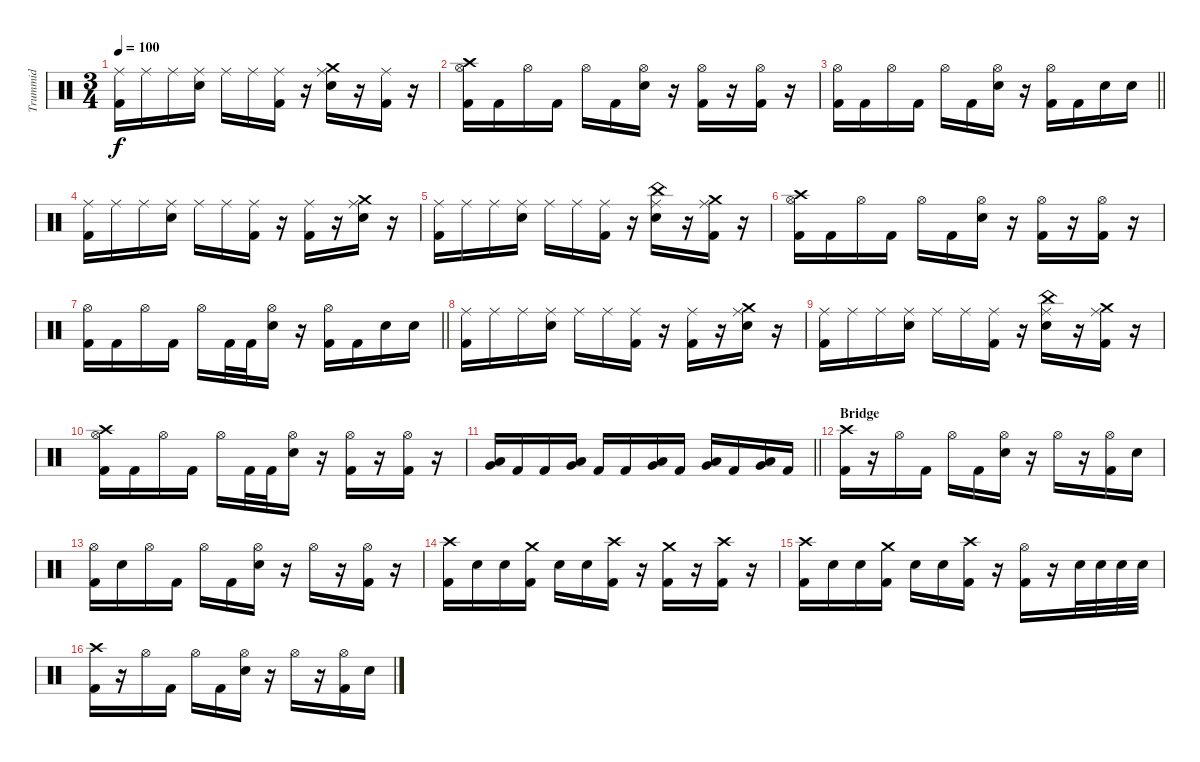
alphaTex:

\track ("Trummid" "Trummid") {instrument percussion}
\staff {score}
\articulation defaults
\ts (3 4)
\tempo 100
\clef neutral
\ks c
("Ride (middle)" "Kick (hit) 2").16{dy f} "Ride (middle)".16 "Ride (middle)".16 ("Ride (middle)" "Snare (hit) 2").16 "Ride (middle)".16 "Ride (middle)".16 ("Ride (middle)" "Kick (hit) 2").16 r.16 ("Crash medium (hit)" "Ride (middle)" "Snare (hit) 2").16 r.16 ("Ride (middle)" "Kick (hit) 2").16 r.16 |
("Crash high (hit)" "Hi-Hat (open)" "Kick (hit) 2").16 "Kick (hit) 2".16 "Hi-Hat (open)".16 "Kick (hit) 2".16 "Hi-Hat (open)".16 "Kick (hit) 2".16 ("Hi-Hat (open)" "Snare (hit) 2").16 r.16 ("Hi-Hat (open)" "Kick (hit) 2").16 r.16 ("Hi-Hat (open)" "Kick (hit) 2").16 r.16 |
\barLineRight lightlight
("Hi-Hat (open)" "Kick (hit) 2").16 "Kick (hit) 2".16 "Hi-Hat (open)".16 "Kick (hit) 2".16 "Hi-Hat (open)".16 "Kick (hit) 2".16 ("Hi-Hat (open)" "Snare (hit) 2").16 r.16 ("Hi-Hat (open)" "Kick (hit) 2").16 "Kick (hit) 2".16 "Snare (hit) 2".16 "Snare (hit) 2".16 |
("Ride (middle)" "Kick (hit) 2").16 "Ride (middle)".16 "Ride (middle)".16 ("Ride (middle)" "Snare (hit) 2").16 "Ride (middle)".16 "Ride (middle)".16 ("Ride (middle)" "Kick (hit) 2").16 r.16 ("Ride (middle)" "Kick (hit) 2").16 r.16 ("Crash medium (hit)" "Ride (middle)" "Snare (hit) 2").16 r.16 |
("Ride (middle)" "Kick (hit) 2").16 "Ride (middle)".16 "Ride (middle)".16 ("Ride (middle)" "Snare (hit) 2").16 "Ride (middle)".16 "Ride (middle)".16 ("Ride (middle)" "Kick (hit) 2").16 r.16 ("China (hit)" "Ride (middle)" "Snare (hit) 2").16 r.16 ("Crash medium (hit)" "Ride (middle)" "Kick (hit) 2").16 r.16 |
("Crash high (hit)" "Hi-Hat (open)" "Kick (hit) 2").16 "Kick (hit) 2".16 "Hi-Hat (open)".16 "Kick (hit) 2".16 "Hi-Hat (open)".16 "Kick (hit) 2".16 ("Hi-Hat (open)" "Snare (hit) 2").16 r.16 ("Hi-Hat (open)" "Kick (hit) 2").16 r.16 ("Hi-Hat (open)" "Kick (hit) 2").16 r.16 |
\barLineRight lightlight
("Hi-Hat (open)" "Kick (hit) 2").16 "Kick (hit) 2".16 "Hi-Hat (open)".16 "Kick (hit) 2".16 "Hi-Hat (open)".16 "Kick (hit) 2".32 "Kick (hit) 2".32 ("Hi-Hat (open)" "Snare (hit) 2").16 r.16 ("Hi-Hat (open)" "Kick (hit) 2").16 "Kick (hit) 2".16 "Snare (hit) 2".16 "Snare (hit) 2".16 |
("Ride (middle)" "Kick (hit) 2").16 "Ride (middle)".16 "Ride (middle)".16 ("Ride (middle)" "Snare (hit) 2").16 "Ride (middle)".16 "Ride (middle)".16 ("Ride (middle)" "Kick (hit) 2").16 r.16 ("Ride (middle)" "Kick (hit) 2").16 r.16 ("Crash medium (hit)" "Ride (middle)" "Snare (hit) 2").16 r.16 |
("Ride (middle)" "Kick (hit) 2").16 "Ride (middle)".16 "Ride (middle)".16 ("Ride (middle)" "Snare (hit) 2").16 "Ride (middle)".16 "Ride (middle)".16 ("Ride (middle)" "Kick (hit) 2").16 r.16 ("China (hit)" "Ride (middle)" "Snare (hit) 2").16 r.16 ("Crash medium (hit)" "Ride (middle)" "Kick (hit) 2").16 r.16 |
("Crash high (hit)" "Hi-Hat (open)" "Kick (hit) 2").16 "Kick (hit) 2".16 "Hi-Hat (open)".16 "Kick (hit) 2".16 "Hi-Hat (open)".16 "Kick (hit) 2".32 "Kick (hit) 2".32 ("Hi-Hat (open)" "Snare (hit) 2").16 r.16 ("Hi-Hat (open)" "Kick (hit) 2").16 r.16 ("Hi-Hat (open)" "Kick (hit) 2").16 r.16 |
\barLineRight lightlight
("Very Low Tom (hit)" "Low Tom (hit)").16 "Kick (hit) 2".16 "Kick (hit) 2".16 ("Very Low Tom (hit)" "Low Tom (hit)").16 "Kick (hit) 2".16 "Kick (hit) 2".16 ("Very Low Tom (hit)" "Low Tom (hit)").16 "Kick (hit) 2".16 ("Very Low Tom (hit)" "Low Tom (hit)").16 "Kick (hit) 2".16 ("Very Low Tom (hit)" "Low Tom (hit)").16 "Kick (hit) 2".16 |
\section ("" "Bridge")
("Crash high (hit)" "Kick (hit) 2").16 r.16 "Hi-Hat (open)".16 "Kick (hit) 2".16 "Hi-Hat (open)".16 "Kick (hit) 2".16 ("Hi-Hat (open)" "Snare (hit) 2").16 r.16 "Hi-Hat (open)".16 r.16 ("Hi-Hat (open)" "Kick (hit) 2").16 "Snare (hit) 2".16 |
("Hi-Hat (open)" "Kick (hit) 2").16 "Snare (hit) 2".16 "Hi-Hat (open)".16 "Kick (hit) 2".16 "Hi-Hat (open)".16 "Kick (hit) 2".16 ("Hi-Hat (open)" "Snare (hit) 2").16 r.16 "Hi-Hat (open)".16 r.16 ("Hi-Hat (open)" "Kick (hit) 2").16 r.16 |
("Crash high (hit)" "Kick (hit) 2").16 "Snare (hit) 2".16 "Snare (hit) 2".16 ("Crash medium (hit)" "Kick (hit) 2").16 "Snare (hit) 2".16 "Snare (hit) 2".16 ("Crash high (hit)" "Kick (hit) 2").16 r.16 ("Crash medium (hit)" "Kick (hit) 2").16 r.16 ("Crash high (hit)" "Kick (hit) 2").16 r.16 |
("Crash high (hit)" "Kick (hit) 2").16 "Snare (hit) 2".16 "Snare (hit) 2".16 ("Crash medium (hit)" "Kick (hit) 2").16 "Snare (hit) 2".16 "Snare (hit) 2".16 ("Crash high (hit)" "Kick (hit) 2").16 r.16 ("Hi-Hat (open)" "Kick (hit) 2").16 r.16 "Snare (hit) 2".32 "Snare (hit) 2".32 "Snare (hit) 2".32 "Snare (hit) 2".32 |
("Crash high (hit)" "Kick (hit) 2").16 r.16 "Hi-Hat (open)".16 "Kick (hit) 2".16 "Hi-Hat (open)".16 "Kick (hit) 2".16 ("Hi-Hat (open)" "Snare (hit) 2").16 r.16 "Hi-Hat (open)".16 r.16 ("Hi-Hat (open)" "Kick (hit) 2").16 "Snare (hit) 2".16
